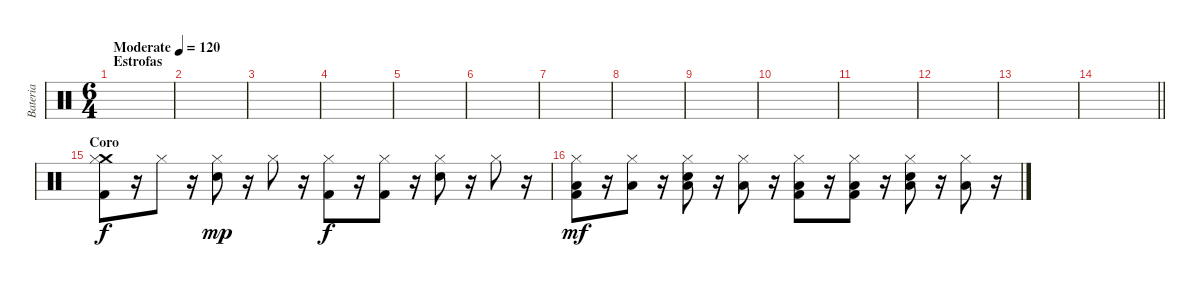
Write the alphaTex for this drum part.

\track ("Bateria" "Bateria") {instrument percussion}
\staff {score}
\articulation defaults
\ts (6 4)
\section ("" "Estrofas")
\tempo (120 "Moderate")
\clef neutral
\ks c
|
|
|
|
|
|
|
|
|
|
|
|
|
\barLineRight lightlight
|
\section ("" "Coro")
("Crash medium (hit)" "Hi-Hat (closed)" "Kick (hit) 2").8 r.16 "Hi-Hat (closed)".8 r.16 ("Hi-Hat (closed)" "Snare (hit) 2").8{dy mp} r.16 "Hi-Hat (closed)".8 r.16 ("Hi-Hat (closed)" "Kick (hit) 2").8{dy f} r.16 ("Hi-Hat (closed)" "Kick (hit) 2").8 r.16 ("Hi-Hat (closed)" "Snare (hit) 2").8 r.16 "Hi-Hat (closed)".8 r.16 |
("Low Floor Tom (hit)" "Hi-Hat (closed)" "Kick (hit) 2").8{dy mf} r.16 ("Low Floor Tom (hit)" "Hi-Hat (closed)").8 r.16 ("Low Floor Tom (hit)" "Hi-Hat (closed)" "Snare (hit) 2").8 r.16 ("Low Floor Tom (hit)" "Hi-Hat (closed)").8 r.16 ("Low Floor Tom (hit)" "Hi-Hat (closed)" "Kick (hit) 2").8 r.16 ("Low Floor Tom (hit)" "Hi-Hat (closed)" "Kick (hit) 2").8 r.16 ("Low Floor Tom (hit)" "Hi-Hat (closed)" "Snare (hit) 2").8 r.16 ("Low Floor Tom (hit)" "Hi-Hat (closed)").8 r.16
